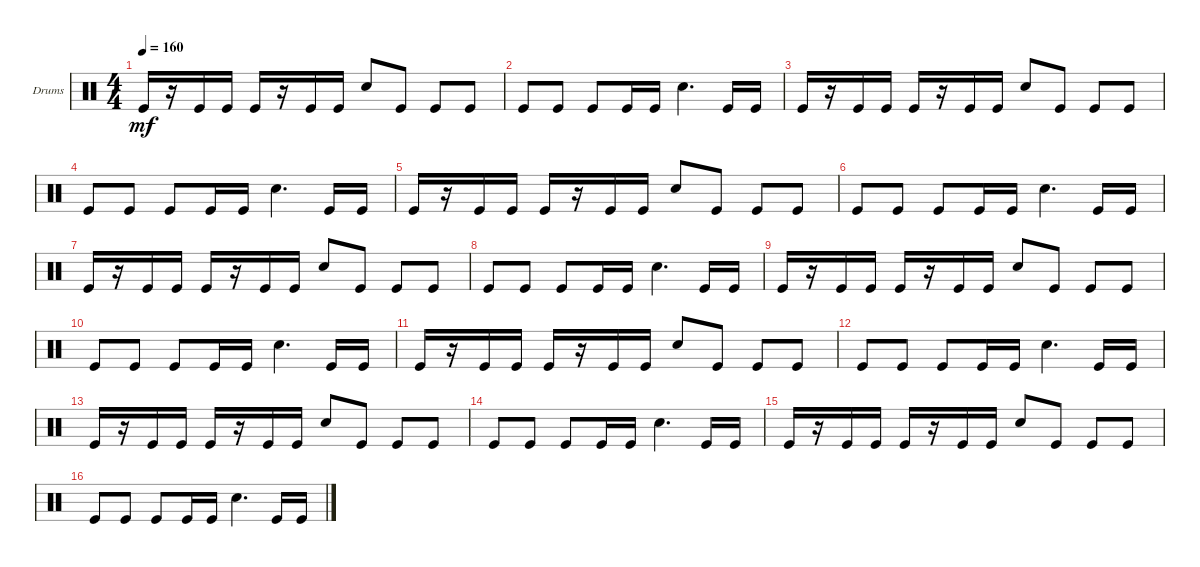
\defaultSystemsLayout 4
\bracketExtendMode groupsimilarinstruments
\firstSystemTrackNameOrientation horizontal
\otherSystemsTrackNameOrientation horizontal
\track ("Drumkit" "Drums") {instrument percussion}
\staff {score}
\articulation defaults
\ts (4 4)
\tempo 160
\clef neutral
\ks c "Kick (hit)".16{dy mf}
r.16 "Kick (hit)".16 "Kick (hit)".16 "Kick (hit)".16 r.16 "Kick (hit)".16 "Kick (hit)".16 "Snare (hit) 2".8 "Kick (hit)".8 "Kick (hit)".8 "Kick (hit)".8 |
"Kick (hit)".8 "Kick (hit)".8 "Kick (hit)".8 "Kick (hit)".16 "Kick (hit)".16 "Snare (hit) 2".4{d} "Kick (hit)".16 "Kick (hit)".16 |
"Kick (hit)".16 r.16 "Kick (hit)".16 "Kick (hit)".16 "Kick (hit)".16 r.16 "Kick (hit)".16 "Kick (hit)".16 "Snare (hit) 2".8 "Kick (hit)".8 "Kick (hit)".8 "Kick (hit)".8 |
"Kick (hit)".8 "Kick (hit)".8 "Kick (hit)".8 "Kick (hit)".16 "Kick (hit)".16 "Snare (hit) 2".4{d} "Kick (hit)".16 "Kick (hit)".16 |
"Kick (hit)".16 r.16 "Kick (hit)".16 "Kick (hit)".16 "Kick (hit)".16 r.16 "Kick (hit)".16 "Kick (hit)".16 "Snare (hit) 2".8 "Kick (hit)".8 "Kick (hit)".8 "Kick (hit)".8 |
"Kick (hit)".8 "Kick (hit)".8 "Kick (hit)".8 "Kick (hit)".16 "Kick (hit)".16 "Snare (hit) 2".4{d} "Kick (hit)".16 "Kick (hit)".16 |
"Kick (hit)".16 r.16 "Kick (hit)".16 "Kick (hit)".16 "Kick (hit)".16 r.16 "Kick (hit)".16 "Kick (hit)".16 "Snare (hit) 2".8 "Kick (hit)".8 "Kick (hit)".8 "Kick (hit)".8 |
"Kick (hit)".8 "Kick (hit)".8 "Kick (hit)".8 "Kick (hit)".16 "Kick (hit)".16 "Snare (hit) 2".4{d} "Kick (hit)".16 "Kick (hit)".16 |
"Kick (hit)".16 r.16 "Kick (hit)".16 "Kick (hit)".16 "Kick (hit)".16 r.16 "Kick (hit)".16 "Kick (hit)".16 "Snare (hit) 2".8 "Kick (hit)".8 "Kick (hit)".8 "Kick (hit)".8 |
"Kick (hit)".8 "Kick (hit)".8 "Kick (hit)".8 "Kick (hit)".16 "Kick (hit)".16 "Snare (hit) 2".4{d} "Kick (hit)".16 "Kick (hit)".16 |
"Kick (hit)".16 r.16 "Kick (hit)".16 "Kick (hit)".16 "Kick (hit)".16 r.16 "Kick (hit)".16 "Kick (hit)".16 "Snare (hit) 2".8 "Kick (hit)".8 "Kick (hit)".8 "Kick (hit)".8 |
"Kick (hit)".8 "Kick (hit)".8 "Kick (hit)".8 "Kick (hit)".16 "Kick (hit)".16 "Snare (hit) 2".4{d} "Kick (hit)".16 "Kick (hit)".16 |
"Kick (hit)".16 r.16 "Kick (hit)".16 "Kick (hit)".16 "Kick (hit)".16 r.16 "Kick (hit)".16 "Kick (hit)".16 "Snare (hit) 2".8 "Kick (hit)".8 "Kick (hit)".8 "Kick (hit)".8 |
"Kick (hit)".8 "Kick (hit)".8 "Kick (hit)".8 "Kick (hit)".16 "Kick (hit)".16 "Snare (hit) 2".4{d} "Kick (hit)".16 "Kick (hit)".16 |
"Kick (hit)".16 r.16 "Kick (hit)".16 "Kick (hit)".16 "Kick (hit)".16 r.16 "Kick (hit)".16 "Kick (hit)".16 "Snare (hit) 2".8 "Kick (hit)".8 "Kick (hit)".8 "Kick (hit)".8 |
"Kick (hit)".8 "Kick (hit)".8 "Kick (hit)".8 "Kick (hit)".16 "Kick (hit)".16 "Snare (hit) 2".4{d} "Kick (hit)".16 "Kick (hit)".16
